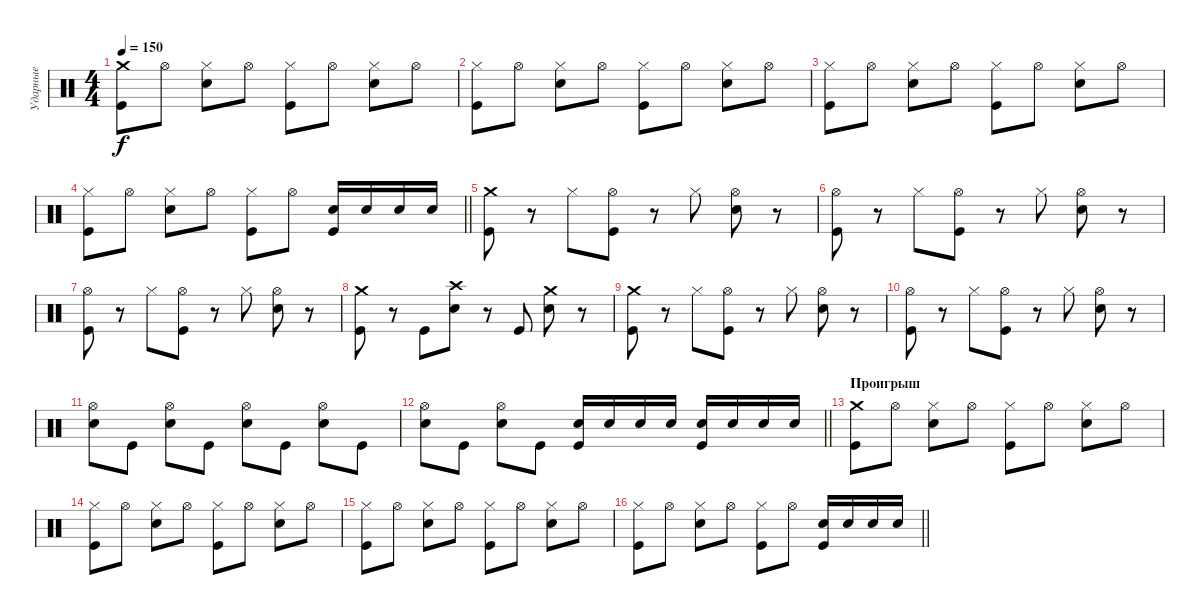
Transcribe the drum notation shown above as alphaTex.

\track ("Ударные" "Ударные") {instrument percussion}
\staff {score}
\articulation defaults
\ts (4 4)
\tempo 150
\clef neutral
\ks c
("Crash medium (hit)" "Kick (hit)").8{dy f} "Hi-Hat (open)".8 ("Hi-Hat (closed)" "Electric Snare (hit)").8 "Hi-Hat (open)".8 ("Hi-Hat (closed)" "Kick (hit)").8 "Hi-Hat (open)".8 ("Hi-Hat (closed)" "Electric Snare (hit)").8 "Hi-Hat (open)".8 |
("Hi-Hat (closed)" "Kick (hit)").8 "Hi-Hat (open)".8 ("Hi-Hat (closed)" "Electric Snare (hit)").8 "Hi-Hat (open)".8 ("Hi-Hat (closed)" "Kick (hit)").8 "Hi-Hat (open)".8 ("Hi-Hat (closed)" "Electric Snare (hit)").8 "Hi-Hat (open)".8 |
("Hi-Hat (closed)" "Kick (hit)").8 "Hi-Hat (open)".8 ("Hi-Hat (closed)" "Electric Snare (hit)").8 "Hi-Hat (open)".8 ("Hi-Hat (closed)" "Kick (hit)").8 "Hi-Hat (open)".8 ("Hi-Hat (closed)" "Electric Snare (hit)").8 "Hi-Hat (open)".8 |
\barLineRight lightlight
("Hi-Hat (closed)" "Kick (hit)").8 "Hi-Hat (open)".8 ("Hi-Hat (closed)" "Electric Snare (hit)").8 "Hi-Hat (open)".8 ("Hi-Hat (closed)" "Kick (hit)").8 "Hi-Hat (open)".8 ("Electric Snare (hit)" "Kick (hit)").16 "Electric Snare (hit)".16 "Electric Snare (hit)".16 "Electric Snare (hit)".16 |
\section ("" " ")
("Crash medium (hit)" "Kick (hit)").8 r.8 "Hi-Hat (closed)".8 ("Hi-Hat (open)" "Kick (hit)").8 r.8 "Hi-Hat (closed)".8 ("Hi-Hat (open)" "Electric Snare (hit)").8 r.8 |
("Hi-Hat (open)" "Kick (hit)").8 r.8 "Hi-Hat (closed)".8 ("Hi-Hat (open)" "Kick (hit)").8 r.8 "Hi-Hat (closed)".8 ("Hi-Hat (open)" "Electric Snare (hit)").8 r.8 |
("Hi-Hat (open)" "Kick (hit)").8 r.8 "Hi-Hat (closed)".8 ("Hi-Hat (open)" "Kick (hit)").8 r.8 "Hi-Hat (closed)".8 ("Hi-Hat (open)" "Electric Snare (hit)").8 r.8 |
("Crash medium (hit)" "Kick (hit)").8 r.8 "Kick (hit)".8 ("Crash high (hit)" "Electric Snare (hit)").8 r.8 "Kick (hit)".8 ("Crash medium (hit)" "Electric Snare (hit)").8 r.8 |
("Crash medium (hit)" "Kick (hit)").8 r.8 "Hi-Hat (closed)".8 ("Hi-Hat (open)" "Kick (hit)").8 r.8 "Hi-Hat (closed)".8 ("Hi-Hat (open)" "Electric Snare (hit)").8 r.8 |
("Hi-Hat (open)" "Kick (hit)").8 r.8 "Hi-Hat (closed)".8 ("Hi-Hat (open)" "Kick (hit)").8 r.8 "Hi-Hat (closed)".8 ("Hi-Hat (open)" "Electric Snare (hit)").8 r.8 |
("Hi-Hat (open)" "Electric Snare (hit)").8 "Kick (hit)".8 ("Hi-Hat (open)" "Electric Snare (hit)").8 "Kick (hit)".8 ("Hi-Hat (open)" "Electric Snare (hit)").8 "Kick (hit)".8 ("Hi-Hat (open)" "Electric Snare (hit)").8 "Kick (hit)".8 |
\barLineRight lightlight
("Hi-Hat (open)" "Electric Snare (hit)").8 "Kick (hit)".8 ("Hi-Hat (open)" "Electric Snare (hit)").8 "Kick (hit)".8 ("Electric Snare (hit)" "Kick (hit)").16 "Electric Snare (hit)".16 "Electric Snare (hit)".16 "Electric Snare (hit)".16 ("Electric Snare (hit)" "Kick (hit)").16 "Electric Snare (hit)".16 "Electric Snare (hit)".16 "Electric Snare (hit)".16 |
\section ("" "Проигрыш")
("Crash medium (hit)" "Kick (hit)").8 "Hi-Hat (open)".8 ("Hi-Hat (closed)" "Electric Snare (hit)").8 "Hi-Hat (open)".8 ("Hi-Hat (closed)" "Kick (hit)").8 "Hi-Hat (open)".8 ("Hi-Hat (closed)" "Electric Snare (hit)").8 "Hi-Hat (open)".8 |
("Hi-Hat (closed)" "Kick (hit)").8 "Hi-Hat (open)".8 ("Hi-Hat (closed)" "Electric Snare (hit)").8 "Hi-Hat (open)".8 ("Hi-Hat (closed)" "Kick (hit)").8 "Hi-Hat (open)".8 ("Hi-Hat (closed)" "Electric Snare (hit)").8 "Hi-Hat (open)".8 |
("Hi-Hat (closed)" "Kick (hit)").8 "Hi-Hat (open)".8 ("Hi-Hat (closed)" "Electric Snare (hit)").8 "Hi-Hat (open)".8 ("Hi-Hat (closed)" "Kick (hit)").8 "Hi-Hat (open)".8 ("Hi-Hat (closed)" "Electric Snare (hit)").8 "Hi-Hat (open)".8 |
\barLineRight lightlight
("Hi-Hat (closed)" "Kick (hit)").8 "Hi-Hat (open)".8 ("Hi-Hat (closed)" "Electric Snare (hit)").8 "Hi-Hat (open)".8 ("Hi-Hat (closed)" "Kick (hit)").8 "Hi-Hat (open)".8 ("Electric Snare (hit)" "Kick (hit)").16 "Electric Snare (hit)".16 "Electric Snare (hit)".16 "Electric Snare (hit)".16
